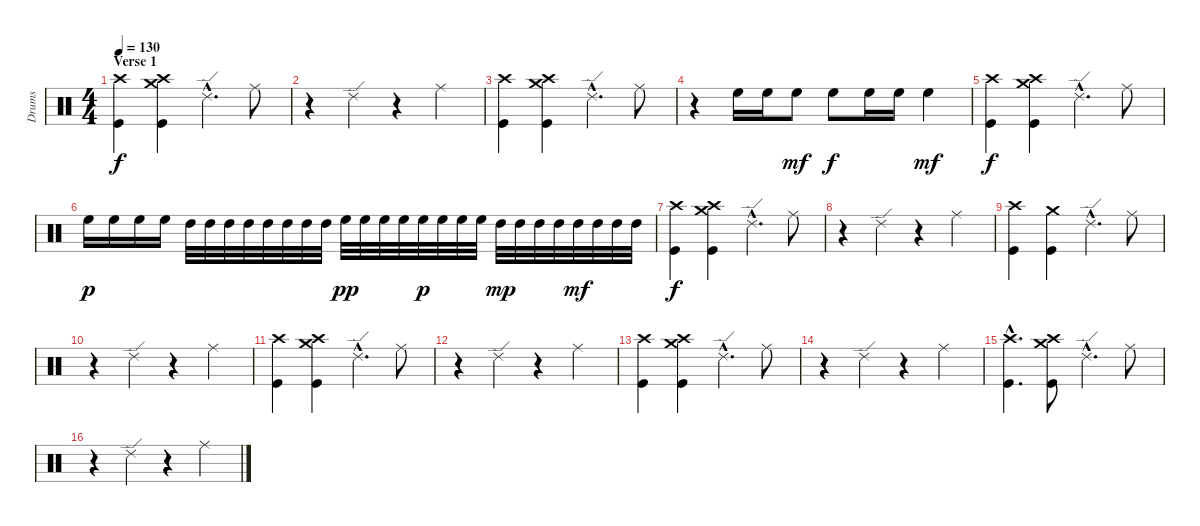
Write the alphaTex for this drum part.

\track ("Drums" "Drums") {instrument percussion}
\staff {score}
\articulation defaults
\ts (4 4)
\section ("" "Verse 1")
\tempo 130
\clef neutral
\ks c
("Crash high (hit)" "Kick (hit)").4{dy f} ("Crash medium (hit)" "Crash high (hit)" "Kick (hit)").4 "Ride (edge) 2"{hac}.4{d} "Ride (middle)".8 |
r.4 "Ride (edge) 2".4 r.4 "Ride (middle)".4 |
("Crash high (hit)" "Kick (hit)").4 ("Crash medium (hit)" "Crash high (hit)" "Kick (hit)").4 "Ride (edge) 2"{hac}.4{d} "Ride (middle)".8 |
r.4 "High Floor Tom (hit)".16{balance 2} "High Floor Tom (hit)".16 "High Floor Tom (hit)".8{dy mf} "High Floor Tom (hit)".8{dy f} "High Floor Tom (hit)".16 "High Floor Tom (hit)".16 "High Floor Tom (hit)".4{dy mf} |
("Crash high (hit)" "Kick (hit)").4{dy f balance 8} ("Crash medium (hit)" "Crash high (hit)" "Kick (hit)").4 "Ride (edge) 2"{hac}.4{d} "Ride (middle)".8 |
"High Floor Tom (hit)".16{dy p} "High Floor Tom (hit)".16 "High Floor Tom (hit)".16 "High Floor Tom (hit)".16 "High Tom (hit)".32 "High Tom (hit)".32 "High Tom (hit)".32 "High Tom (hit)".32 "High Tom (hit)".32 "High Tom (hit)".32 "High Tom (hit)".32 "High Tom (hit)".32 "High Floor Tom (hit)".32{dy pp} "High Floor Tom (hit)".32 "High Floor Tom (hit)".32 "High Floor Tom (hit)".32 "High Floor Tom (hit)".32{dy p} "High Floor Tom (hit)".32 "High Floor Tom (hit)".32 "High Floor Tom (hit)".32 "High Tom (hit)".32{dy mp} "High Tom (hit)".32 "High Tom (hit)".32 "High Tom (hit)".32 "High Tom (hit)".32{dy mf} "High Tom (hit)".32 "High Tom (hit)".32 "High Tom (hit)".32 |
("Crash high (hit)" "Kick (hit)").4{dy f} ("Crash medium (hit)" "Crash high (hit)" "Kick (hit)").4 "Ride (edge) 2"{hac}.4{d} "Ride (middle)".8 |
r.4 "Ride (edge) 2".4 r.4 "Ride (middle)".4 |
("Crash high (hit)" "Kick (hit)").4 ("Crash medium (hit)" "Kick (hit)").4 "Ride (edge) 2"{hac}.4{d} "Ride (middle)".8 |
r.4 "Ride (edge) 2".4 r.4 "Ride (middle)".4 |
("Crash high (hit)" "Kick (hit)").4 ("Crash medium (hit)" "Crash high (hit)" "Kick (hit)").4 "Ride (edge) 2"{hac}.4{d} "Ride (middle)".8 |
r.4 "Ride (edge) 2".4 r.4 "Ride (middle)".4 |
("Crash high (hit)" "Kick (hit)").4 ("Crash medium (hit)" "Crash high (hit)" "Kick (hit)").4 "Ride (edge) 2"{hac}.4{d} "Ride (middle)".8 |
r.4 "Ride (edge) 2".4 r.4 "Ride (middle)".4 |
("Crash high (hit)"{hac} "Kick (hit)"{hac}).4{d} ("Crash medium (hit)" "Crash high (hit)" "Kick (hit)").8 "Ride (edge) 2"{hac}.4{d} "Ride (middle)".8 |
r.4 "Ride (edge) 2".4 r.4 "Ride (middle)".4
